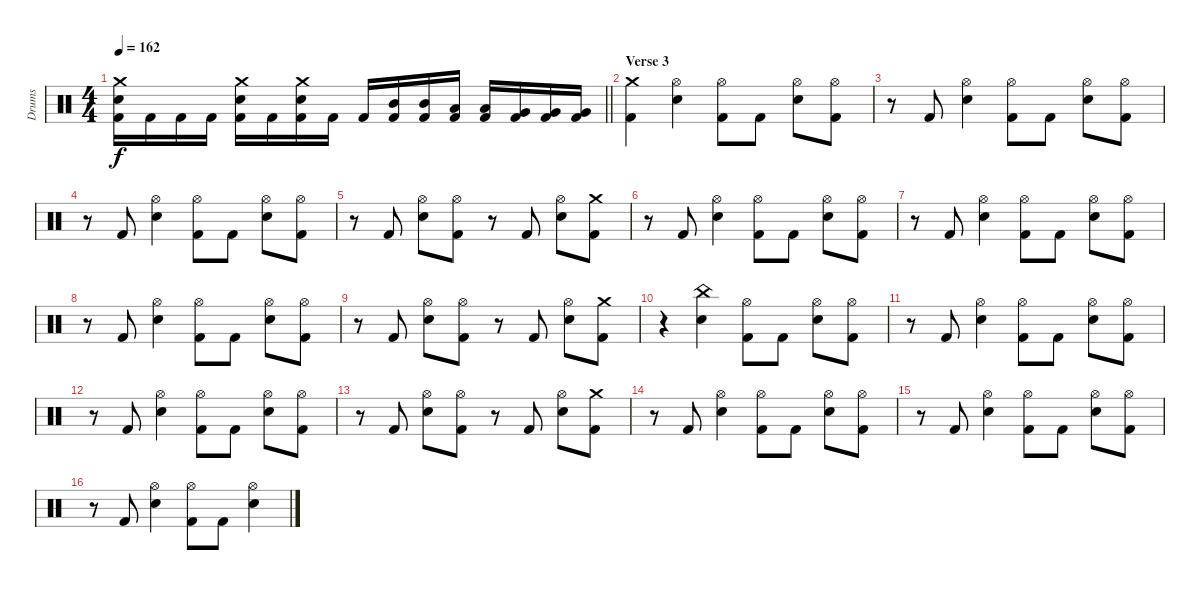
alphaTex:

\track ("Drums" "Drums") {instrument percussion}
\staff {score}
\articulation defaults
\ts (4 4)
\tempo 162
\clef neutral
\barLineRight lightlight
\ks c
("Crash medium (hit)" "Snare (hit) 2" "Kick (hit) 2").16{dy f} "Kick (hit) 2".16 "Kick (hit) 2".16 "Kick (hit) 2".16 ("Crash medium (hit)" "Snare (hit) 2" "Kick (hit) 2").16 "Kick (hit) 2".16 ("Crash medium (hit)" "Snare (hit) 2" "Kick (hit) 2").16 "Kick (hit) 2".16 "Kick (hit) 2".16 ("Mid Tom (hit)" "Kick (hit) 2").16 ("Mid Tom (hit)" "Kick (hit) 2").16 ("Low Tom (hit)" "Kick (hit) 2").16 ("Low Tom (hit)" "Kick (hit) 2").16 ("Very Low Tom (hit)" "Kick (hit) 2").16 ("Very Low Tom (hit)" "Kick (hit) 2").16 ("Very Low Tom (hit)" "Kick (hit) 2").16 |
\section ("" "Verse 3")
("Crash medium (hit)" "Kick (hit) 2").4 ("Hi-Hat (open)" "Snare (hit) 2").4 ("Hi-Hat (open)" "Kick (hit) 2").8 "Kick (hit) 2".8 ("Hi-Hat (open)" "Snare (hit) 2").8 ("Hi-Hat (open)" "Kick (hit) 2").8 |
r.8 "Kick (hit) 2".8 ("Hi-Hat (open)" "Snare (hit) 2").4 ("Hi-Hat (open)" "Kick (hit) 2").8 "Kick (hit) 2".8 ("Hi-Hat (open)" "Snare (hit) 2").8 ("Hi-Hat (open)" "Kick (hit) 2").8 |
r.8 "Kick (hit) 2".8 ("Hi-Hat (open)" "Snare (hit) 2").4 ("Hi-Hat (open)" "Kick (hit) 2").8 "Kick (hit) 2".8 ("Hi-Hat (open)" "Snare (hit) 2").8 ("Hi-Hat (open)" "Kick (hit) 2").8 |
r.8 "Kick (hit) 2".8 ("Hi-Hat (open)" "Snare (hit) 2").8 ("Hi-Hat (open)" "Kick (hit) 2").8 r.8 "Kick (hit) 2".8 ("Hi-Hat (open)" "Snare (hit) 2").8 ("Crash medium (hit)" "Kick (hit) 2").8 |
r.8 "Kick (hit) 2".8 ("Hi-Hat (open)" "Snare (hit) 2").4 ("Hi-Hat (open)" "Kick (hit) 2").8 "Kick (hit) 2".8 ("Hi-Hat (open)" "Snare (hit) 2").8 ("Hi-Hat (open)" "Kick (hit) 2").8 |
r.8 "Kick (hit) 2".8 ("Hi-Hat (open)" "Snare (hit) 2").4 ("Hi-Hat (open)" "Kick (hit) 2").8 "Kick (hit) 2".8 ("Hi-Hat (open)" "Snare (hit) 2").8 ("Hi-Hat (open)" "Kick (hit) 2").8 |
r.8 "Kick (hit) 2".8 ("Hi-Hat (open)" "Snare (hit) 2").4 ("Hi-Hat (open)" "Kick (hit) 2").8 "Kick (hit) 2".8 ("Hi-Hat (open)" "Snare (hit) 2").8 ("Hi-Hat (open)" "Kick (hit) 2").8 |
r.8 "Kick (hit) 2".8 ("Hi-Hat (open)" "Snare (hit) 2").8 ("Hi-Hat (open)" "Kick (hit) 2").8 r.8 "Kick (hit) 2".8 ("Hi-Hat (open)" "Snare (hit) 2").8 ("Crash medium (hit)" "Kick (hit) 2").8 |
r.4 ("China (hit)" "Snare (hit) 2").4 ("Hi-Hat (open)" "Kick (hit) 2").8 "Kick (hit) 2".8 ("Hi-Hat (open)" "Snare (hit) 2").8 ("Hi-Hat (open)" "Kick (hit) 2").8 |
r.8 "Kick (hit) 2".8 ("Hi-Hat (open)" "Snare (hit) 2").4 ("Hi-Hat (open)" "Kick (hit) 2").8 "Kick (hit) 2".8 ("Hi-Hat (open)" "Snare (hit) 2").8 ("Hi-Hat (open)" "Kick (hit) 2").8 |
r.8 "Kick (hit) 2".8 ("Hi-Hat (open)" "Snare (hit) 2").4 ("Hi-Hat (open)" "Kick (hit) 2").8 "Kick (hit) 2".8 ("Hi-Hat (open)" "Snare (hit) 2").8 ("Hi-Hat (open)" "Kick (hit) 2").8 |
r.8 "Kick (hit) 2".8 ("Hi-Hat (open)" "Snare (hit) 2").8 ("Hi-Hat (open)" "Kick (hit) 2").8 r.8 "Kick (hit) 2".8 ("Hi-Hat (open)" "Snare (hit) 2").8 ("Crash medium (hit)" "Kick (hit) 2").8 |
r.8 "Kick (hit) 2".8 ("Hi-Hat (open)" "Snare (hit) 2").4 ("Hi-Hat (open)" "Kick (hit) 2").8 "Kick (hit) 2".8 ("Hi-Hat (open)" "Snare (hit) 2").8 ("Hi-Hat (open)" "Kick (hit) 2").8 |
r.8 "Kick (hit) 2".8 ("Hi-Hat (open)" "Snare (hit) 2").4 ("Hi-Hat (open)" "Kick (hit) 2").8 "Kick (hit) 2".8 ("Hi-Hat (open)" "Snare (hit) 2").8 ("Hi-Hat (open)" "Kick (hit) 2").8 |
r.8 "Kick (hit) 2".8 ("Hi-Hat (open)" "Snare (hit) 2").4 ("Hi-Hat (open)" "Kick (hit) 2").8 "Kick (hit) 2".8 ("Hi-Hat (open)" "Snare (hit) 2").4
